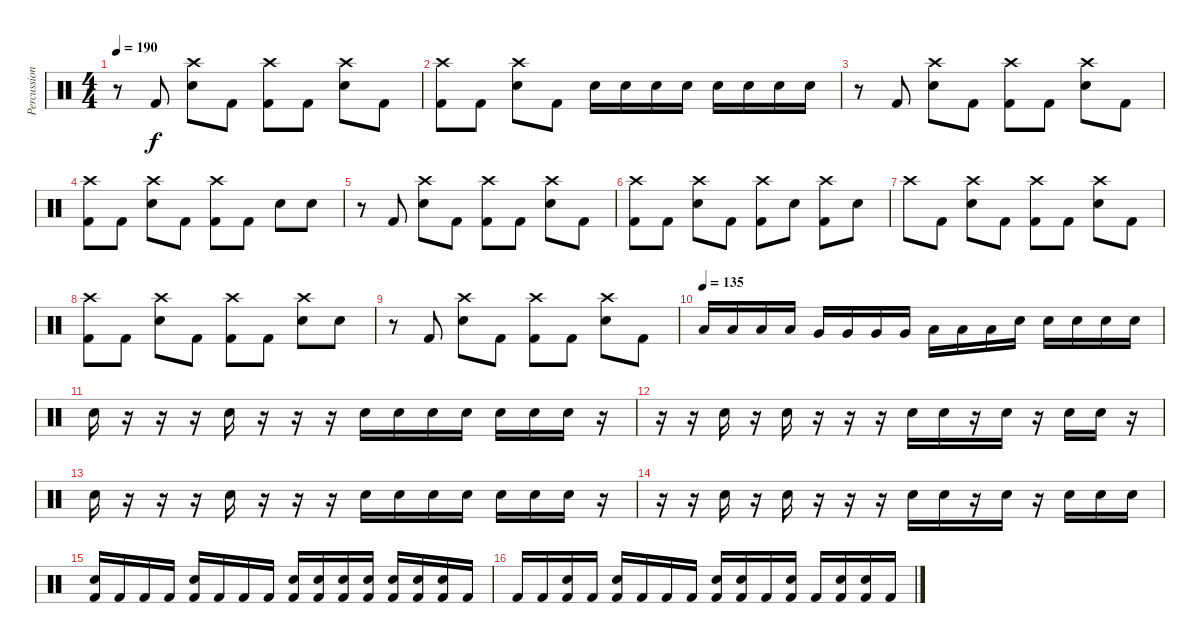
\track ("Percussions" "Percussion") {instrument percussion}
\staff {score}
\articulation defaults
\ts (4 4)
\tempo 190
\clef neutral
\ks c
r.8{dy f} "Kick (hit) 2".8 ("Crash high (hit)" "Electric Snare (hit)").8 "Kick (hit) 2".8 ("Crash high (hit)" "Kick (hit) 2").8 "Kick (hit) 2".8 ("Crash high (hit)" "Electric Snare (hit)").8 "Kick (hit) 2".8 |
("Crash high (hit)" "Kick (hit) 2").8 "Kick (hit) 2".8 ("Crash high (hit)" "Electric Snare (hit)").8 "Kick (hit) 2".8 "Electric Snare (hit)".16 "Electric Snare (hit)".16 "Electric Snare (hit)".16 "Electric Snare (hit)".16 "Electric Snare (hit)".16 "Electric Snare (hit)".16 "Electric Snare (hit)".16 "Electric Snare (hit)".16 |
r.8 "Kick (hit) 2".8 ("Crash high (hit)" "Electric Snare (hit)").8 "Kick (hit) 2".8 ("Crash high (hit)" "Kick (hit) 2").8 "Kick (hit) 2".8 ("Crash high (hit)" "Electric Snare (hit)").8 "Kick (hit) 2".8 |
("Crash high (hit)" "Kick (hit) 2").8 "Kick (hit) 2".8 ("Crash high (hit)" "Electric Snare (hit)").8 "Kick (hit) 2".8 ("Crash high (hit)" "Kick (hit) 2").8 "Kick (hit) 2".8 "Electric Snare (hit)".8 "Electric Snare (hit)".8 |
r.8 "Kick (hit) 2".8 ("Crash high (hit)" "Electric Snare (hit)").8 "Kick (hit) 2".8 ("Crash high (hit)" "Kick (hit) 2").8 "Kick (hit) 2".8 ("Crash high (hit)" "Electric Snare (hit)").8 "Kick (hit) 2".8 |
("Crash high (hit)" "Kick (hit) 2").8 "Kick (hit) 2".8 ("Crash high (hit)" "Electric Snare (hit)").8 "Kick (hit) 2".8 ("Crash high (hit)" "Kick (hit) 2").8 "Electric Snare (hit)".8 ("Crash high (hit)" "Kick (hit) 2").8 "Electric Snare (hit)".8 |
"Crash high (hit)".8 "Kick (hit) 2".8 ("Crash high (hit)" "Electric Snare (hit)").8 "Kick (hit) 2".8 ("Crash high (hit)" "Kick (hit) 2").8 "Kick (hit) 2".8 ("Crash high (hit)" "Electric Snare (hit)").8 "Kick (hit) 2".8 |
("Crash high (hit)" "Kick (hit) 2").8 "Kick (hit) 2".8 ("Crash high (hit)" "Electric Snare (hit)").8 "Kick (hit) 2".8 ("Crash high (hit)" "Kick (hit) 2").8 "Kick (hit) 2".8 ("Crash high (hit)" "Electric Snare (hit)").8 "Electric Snare (hit)".8 |
r.8 "Kick (hit) 2".8 ("Crash high (hit)" "Electric Snare (hit)").8 "Kick (hit) 2".8 ("Crash high (hit)" "Kick (hit) 2").8 "Kick (hit) 2".8 ("Crash high (hit)" "Electric Snare (hit)").8 "Kick (hit) 2".8 |
\tempo (135)
"Low Tom (hit)".16 "Low Tom (hit)".16 "Low Tom (hit)".16 "Low Tom (hit)".16 "Very Low Tom (hit)".16 "Very Low Tom (hit)".16 "Very Low Tom (hit)".16 "Very Low Tom (hit)".16 "Low Floor Tom (hit)".16 "Low Floor Tom (hit)".16 "Low Floor Tom (hit)".16 "Electric Snare (hit)".16 "Electric Snare (hit)".16 "Electric Snare (hit)".16 "Electric Snare (hit)".16 "Electric Snare (hit)".16 |
"Electric Snare (hit)".16 r.16 r.16 r.16 "Electric Snare (hit)".16 r.16 r.16 r.16 "Electric Snare (hit)".16 "Electric Snare (hit)".16 "Electric Snare (hit)".16 "Electric Snare (hit)".16 "Electric Snare (hit)".16 "Electric Snare (hit)".16 "Electric Snare (hit)".16 r.16 |
r.16 r.16 "Electric Snare (hit)".16 r.16 "Electric Snare (hit)".16 r.16 r.16 r.16 "Electric Snare (hit)".16 "Electric Snare (hit)".16 r.16 "Electric Snare (hit)".16 r.16 "Electric Snare (hit)".16 "Electric Snare (hit)".16 r.16 |
"Electric Snare (hit)".16 r.16 r.16 r.16 "Electric Snare (hit)".16 r.16 r.16 r.16 "Electric Snare (hit)".16 "Electric Snare (hit)".16 "Electric Snare (hit)".16 "Electric Snare (hit)".16 "Electric Snare (hit)".16 "Electric Snare (hit)".16 "Electric Snare (hit)".16 r.16 |
r.16 r.16 "Electric Snare (hit)".16 r.16 "Electric Snare (hit)".16 r.16 r.16 r.16 "Electric Snare (hit)".16 "Electric Snare (hit)".16 r.16 "Electric Snare (hit)".16 r.16 "Electric Snare (hit)".16 "Electric Snare (hit)".16 "Electric Snare (hit)".16 |
("Electric Snare (hit)" "Kick (hit) 2").16 "Kick (hit) 2".16 "Kick (hit) 2".16 "Kick (hit) 2".16 ("Electric Snare (hit)" "Kick (hit) 2").16 "Kick (hit) 2".16 "Kick (hit) 2".16 "Kick (hit) 2".16 ("Electric Snare (hit)" "Kick (hit) 2").16 ("Electric Snare (hit)" "Kick (hit) 2").16 ("Electric Snare (hit)" "Kick (hit) 2").16 ("Electric Snare (hit)" "Kick (hit) 2").16 ("Electric Snare (hit)" "Kick (hit) 2").16 ("Electric Snare (hit)" "Kick (hit) 2").16 ("Electric Snare (hit)" "Kick (hit) 2").16 "Kick (hit) 2".16 |
"Kick (hit) 2".16 "Kick (hit) 2".16 ("Electric Snare (hit)" "Kick (hit) 2").16 "Kick (hit) 2".16 ("Electric Snare (hit)" "Kick (hit) 2").16 "Kick (hit) 2".16 "Kick (hit) 2".16 "Kick (hit) 2".16 ("Electric Snare (hit)" "Kick (hit) 2").16 ("Electric Snare (hit)" "Kick (hit) 2").16 "Kick (hit) 2".16 ("Electric Snare (hit)" "Kick (hit) 2").16 "Kick (hit) 2".16 ("Electric Snare (hit)" "Kick (hit) 2").16 ("Electric Snare (hit)" "Kick (hit) 2").16 "Kick (hit) 2".16
